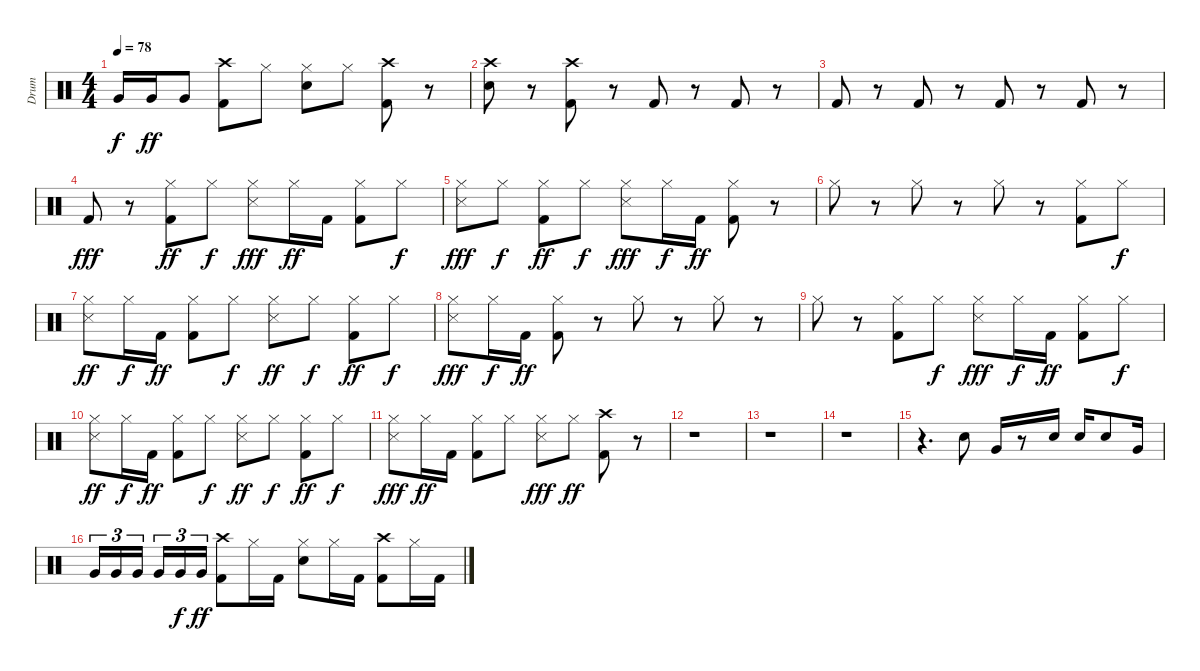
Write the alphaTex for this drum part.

\track ("Drum" "Drum") {instrument percussion}
\staff {score}
\articulation defaults
\ts (4 4)
\tempo 78
\clef neutral
\ks c "Very Low Tom (hit)".16{dy f} "Very Low Tom (hit)".16{dy ff} "Very Low Tom (hit)".8
("Kick (hit) 2" "Crash high (hit)").8 "Hi-Hat (closed)".8 ("Snare (hit) 2" "Hi-Hat (closed)").8 "Hi-Hat (closed)".8 ("Kick (hit) 2" "Crash high (hit)").8 r.8 |
("Snare (hit) 2" "Crash high (hit)").8 r.8 ("Kick (hit) 2" "Crash high (hit)").8 r.8 "Kick (hit) 2".8 r.8 "Kick (hit) 2".8 r.8 |
"Kick (hit) 2".8 r.8 "Kick (hit) 2".8 r.8 "Kick (hit) 2".8 r.8 "Kick (hit) 2".8 r.8 |
"Kick (hit) 2".8{dy fff} r.8 ("Kick (hit) 2" "Hi-Hat (closed)").8{dy ff} "Hi-Hat (closed)".8{dy f} ("Snare (side stick) 3" "Hi-Hat (closed)").8{dy fff} "Hi-Hat (closed)".16{dy ff} "Kick (hit) 2".16 ("Kick (hit) 2" "Hi-Hat (closed)").8 "Hi-Hat (closed)".8{dy f} |
("Snare (side stick) 3" "Hi-Hat (closed)").8{dy fff} "Hi-Hat (closed)".8{dy f} ("Kick (hit) 2" "Hi-Hat (closed)").8{dy ff} "Hi-Hat (closed)".8{dy f} ("Hi-Hat (closed)" "Snare (side stick) 3").8{dy fff} "Hi-Hat (closed)".16{dy f} "Kick (hit) 2".16{dy ff} ("Kick (hit) 2" "Hi-Hat (closed)").8 r.8 |
"Hi-Hat (closed)".8 r.8 "Hi-Hat (closed)".8 r.8 "Hi-Hat (closed)".8 r.8 ("Kick (hit) 2" "Hi-Hat (closed)").8 "Hi-Hat (closed)".8{dy f} |
("Snare (side stick) 3" "Hi-Hat (closed)").8{dy ff} "Hi-Hat (closed)".16{dy f} "Kick (hit) 2".16{dy ff} ("Kick (hit) 2" "Hi-Hat (closed)").8 "Hi-Hat (closed)".8{dy f} ("Snare (side stick) 3" "Hi-Hat (closed)").8{dy ff} "Hi-Hat (closed)".8{dy f} ("Kick (hit) 2" "Hi-Hat (closed)").8{dy ff} "Hi-Hat (closed)".8{dy f} |
("Snare (side stick) 3" "Hi-Hat (closed)").8{dy fff} "Hi-Hat (closed)".16{dy f} "Kick (hit) 2".16{dy ff} ("Kick (hit) 2" "Hi-Hat (closed)").8 r.8 "Hi-Hat (closed)".8 r.8 "Hi-Hat (closed)".8 r.8 |
"Hi-Hat (closed)".8 r.8 ("Kick (hit) 2" "Hi-Hat (closed)").8 "Hi-Hat (closed)".8{dy f} ("Snare (side stick) 3" "Hi-Hat (closed)").8{dy fff} "Hi-Hat (closed)".16{dy f} "Kick (hit) 2".16{dy ff} ("Kick (hit) 2" "Hi-Hat (closed)").8 "Hi-Hat (closed)".8{dy f} |
("Snare (side stick) 3" "Hi-Hat (closed)").8{dy ff} "Hi-Hat (closed)".16{dy f} "Kick (hit) 2".16{dy ff} ("Kick (hit) 2" "Hi-Hat (closed)").8 "Hi-Hat (closed)".8{dy f} ("Snare (side stick) 3" "Hi-Hat (closed)").8{dy ff} "Hi-Hat (closed)".8{dy f} ("Kick (hit) 2" "Hi-Hat (closed)").8{dy ff} "Hi-Hat (closed)".8{dy f} |
("Snare (side stick) 3" "Hi-Hat (closed)").8{dy fff} "Hi-Hat (closed)".16{dy ff} "Kick (hit) 2".16 ("Kick (hit) 2" "Hi-Hat (closed)").8 "Hi-Hat (closed)".8 ("Snare (side stick) 3" "Hi-Hat (closed)").8{dy fff} "Hi-Hat (closed)".8{dy ff} ("Kick (hit) 2" "Crash high (hit)").8 r.8 |
r.1 |
r.1 |
r.1 |
r.4{d} "Snare (hit) 2".8 "Very Low Tom (hit)".16 r.8 "Snare (hit) 2".16 "Snare (hit) 2".16 "Snare (hit) 2".8 "Very Low Tom (hit)".16 |
"Very Low Tom (hit)".16{tu (3 2)} "Very Low Tom (hit)".16{tu (3 2)} "Very Low Tom (hit)".16{tu (3 2)} "Very Low Tom (hit)".16{tu (3 2)} "Very Low Tom (hit)".16{tu (3 2) dy f} "Very Low Tom (hit)".16{tu (3 2) dy ff} ("Kick (hit) 2" "Crash high (hit)").8 "Hi-Hat (closed)".16 "Kick (hit) 2".16 ("Snare (hit) 2" "Hi-Hat (closed)").8 "Hi-Hat (closed)".16 "Kick (hit) 2".16 ("Kick (hit) 2" "Crash high (hit)").8 "Hi-Hat (closed)".16 "Kick (hit) 2".16
